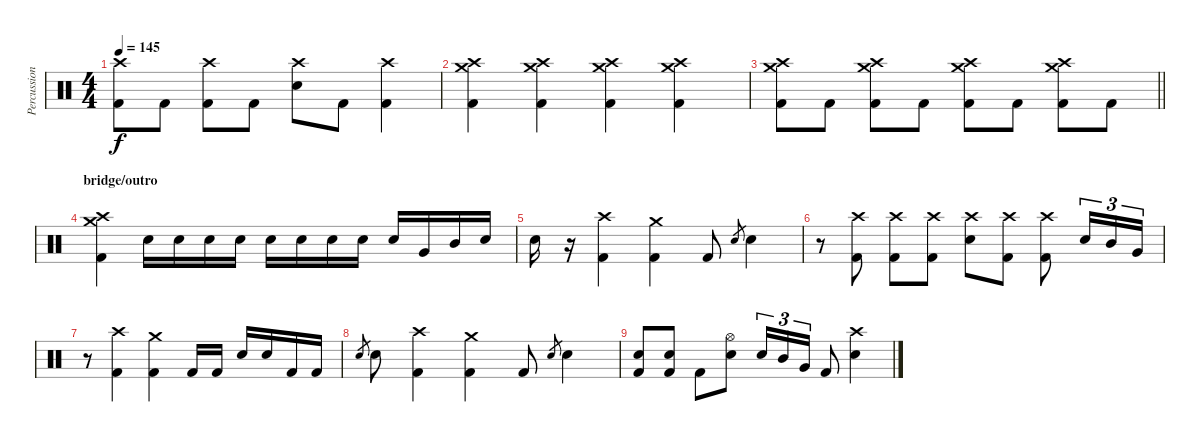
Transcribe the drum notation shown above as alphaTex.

\track ("Percussion" "Percussion") {instrument percussion}
\staff {score}
\articulation defaults
\ts (4 4)
\tempo 145
\clef neutral
\ks c
("Crash high (hit)" "Kick (hit) 2").8{dy f} "Kick (hit) 2".8 ("Crash high (hit)" "Kick (hit) 2").8 "Kick (hit) 2".8 ("Crash high (hit)" "Snare (hit) 2").8 "Kick (hit) 2".8 ("Crash high (hit)" "Kick (hit) 2").4 |
("Crash high (hit)" "Crash medium (hit)" "Kick (hit) 2").4 ("Crash high (hit)" "Crash medium (hit)" "Kick (hit) 2").4 ("Crash high (hit)" "Crash medium (hit)" "Kick (hit) 2").4 ("Crash high (hit)" "Crash medium (hit)" "Kick (hit) 2").4 |
\barLineRight lightlight
("Crash high (hit)" "Crash medium (hit)" "Kick (hit) 2").8 "Kick (hit) 2".8 ("Crash high (hit)" "Crash medium (hit)" "Kick (hit) 2").8 "Kick (hit) 2".8 ("Crash high (hit)" "Crash medium (hit)" "Kick (hit) 2").8 "Kick (hit) 2".8 ("Crash high (hit)" "Crash medium (hit)" "Kick (hit) 2").8 "Kick (hit) 2".8 |
\section ("" "bridge/outro")
("Crash high (hit)" "Crash medium (hit)" "Kick (hit) 2").4 "Snare (hit) 2".16 "Snare (hit) 2".16 "Snare (hit) 2".16 "Snare (hit) 2".16 "Snare (hit) 2".16 "Snare (hit) 2".16 "Snare (hit) 2".16 "Snare (hit) 2".16 "Snare (hit) 2".16 "Very Low Tom (hit)".16 "Mid Tom (hit)".16 "Snare (hit) 2".16 |
"Snare (hit) 2".16 r.16 ("Crash high (hit)" "Kick (hit) 2").4 ("Crash medium (hit)" "Kick (hit) 2").4 "Kick (hit) 2".8 "Snare (hit) 2".8{gr} "Snare (hit) 2".4 |
r.8 ("Crash high (hit)" "Kick (hit) 2").8 ("Crash high (hit)" "Kick (hit) 2").8 ("Crash high (hit)" "Kick (hit) 2").8 ("Crash high (hit)" "Snare (hit) 2").8 ("Crash high (hit)" "Kick (hit) 2").8 ("Crash high (hit)" "Kick (hit) 2").8 "Snare (hit) 2".16{tu (3 2)} "Mid Tom (hit)".16{tu (3 2)} "Very Low Tom (hit)".16{tu (3 2)} |
r.8 ("Crash high (hit)" "Kick (hit) 2").4 ("Crash medium (hit)" "Kick (hit) 2").4 "Kick (hit) 2".16 "Kick (hit) 2".16 "Snare (hit) 2".16 "Snare (hit) 2".16 "Kick (hit) 2".16 "Kick (hit) 2".16 |
"Snare (hit) 2".8{gr} "Snare (hit) 2".8 ("Crash high (hit)" "Kick (hit) 2").4 ("Crash medium (hit)" "Kick (hit) 2").4 "Kick (hit) 2".8 "Snare (hit) 2".8{gr} "Snare (hit) 2".4 |
("Snare (hit) 2" "Kick (hit) 2").8 ("Snare (hit) 2" "Kick (hit) 2").8 "Kick (hit) 2".8 ("Hi-Hat (open)" "Snare (hit) 2").8 "Snare (hit) 2".16{tu (3 2)} "Mid Tom (hit)".16{tu (3 2)} "Very Low Tom (hit)".16{tu (3 2)} "Kick (hit) 2".8 ("Crash high (hit)" "Snare (hit) 2").4
